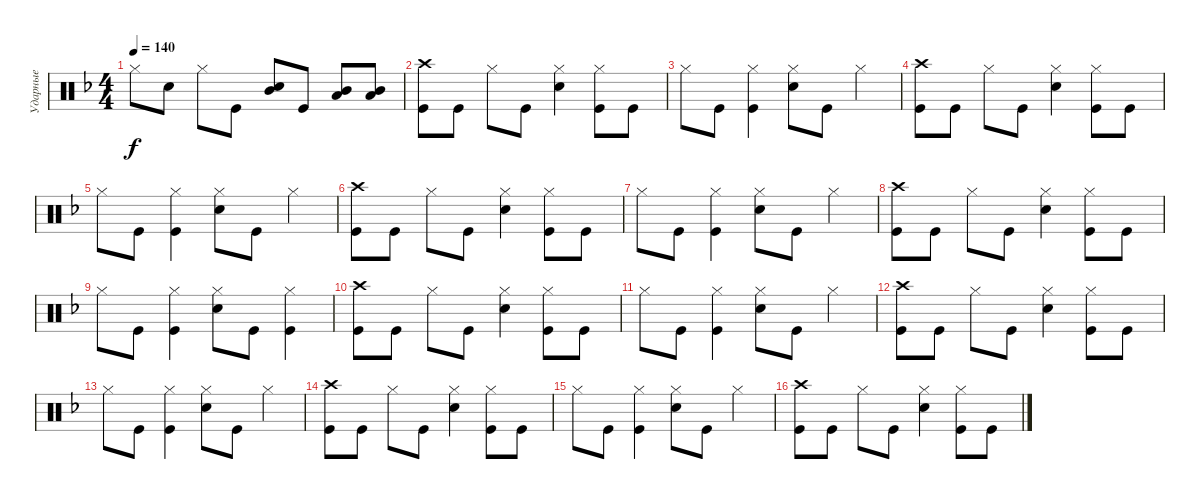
\track ("Ударные" "Ударные") {instrument percussion}
\staff {score}
\articulation defaults
\ts (4 4)
\tempo 140
\clef neutral
\ks dminor "Hi-Hat (closed)".8{dy f} "Snare (hit) 2".8 "Hi-Hat (closed)".8 "Kick (hit)".8
("Snare (hit) 2" "Mid Tom (hit)").8{bd 60} "Kick (hit)".8 ("Mid Tom (hit)" "Low Tom (hit)").8{bd 60} ("Mid Tom (hit)" "Low Tom (hit)").8{bd 60} |
("Kick (hit)" "Crash high (hit)").8 "Kick (hit)".8 "Hi-Hat (closed)".8 "Kick (hit)".8 ("Snare (hit) 2" "Hi-Hat (closed)").4 ("Hi-Hat (closed)" "Kick (hit)").8 "Kick (hit)".8 |
"Hi-Hat (closed)".8 "Kick (hit)".8 ("Kick (hit)" "Hi-Hat (closed)").4 ("Snare (hit) 2" "Hi-Hat (closed)").8 "Kick (hit)".8 "Hi-Hat (closed)".4 |
("Kick (hit)" "Crash high (hit)").8 "Kick (hit)".8 "Hi-Hat (closed)".8 "Kick (hit)".8 ("Snare (hit) 2" "Hi-Hat (closed)").4 ("Hi-Hat (closed)" "Kick (hit)").8 "Kick (hit)".8 |
"Hi-Hat (closed)".8 "Kick (hit)".8 ("Kick (hit)" "Hi-Hat (closed)").4 ("Snare (hit) 2" "Hi-Hat (closed)").8 "Kick (hit)".8 "Hi-Hat (closed)".4 |
("Kick (hit)" "Crash high (hit)").8 "Kick (hit)".8 "Hi-Hat (closed)".8 "Kick (hit)".8 ("Snare (hit) 2" "Hi-Hat (closed)").4 ("Hi-Hat (closed)" "Kick (hit)").8 "Kick (hit)".8 |
"Hi-Hat (closed)".8 "Kick (hit)".8 ("Kick (hit)" "Hi-Hat (closed)").4 ("Snare (hit) 2" "Hi-Hat (closed)").8 "Kick (hit)".8 "Hi-Hat (closed)".4 |
("Kick (hit)" "Crash high (hit)").8 "Kick (hit)".8 "Hi-Hat (closed)".8 "Kick (hit)".8 ("Snare (hit) 2" "Hi-Hat (closed)").4 ("Hi-Hat (closed)" "Kick (hit)").8 "Kick (hit)".8 |
"Hi-Hat (closed)".8 "Kick (hit)".8 ("Kick (hit)" "Hi-Hat (closed)").4 ("Snare (hit) 2" "Hi-Hat (closed)").8 "Kick (hit)".8 ("Hi-Hat (closed)" "Kick (hit)").4 |
("Kick (hit)" "Crash high (hit)").8 "Kick (hit)".8 "Hi-Hat (closed)".8 "Kick (hit)".8 ("Snare (hit) 2" "Hi-Hat (closed)").4 ("Hi-Hat (closed)" "Kick (hit)").8 "Kick (hit)".8 |
"Hi-Hat (closed)".8 "Kick (hit)".8 ("Kick (hit)" "Hi-Hat (closed)").4 ("Snare (hit) 2" "Hi-Hat (closed)").8 "Kick (hit)".8 "Hi-Hat (closed)".4 |
("Kick (hit)" "Crash high (hit)").8 "Kick (hit)".8 "Hi-Hat (closed)".8 "Kick (hit)".8 ("Snare (hit) 2" "Hi-Hat (closed)").4 ("Hi-Hat (closed)" "Kick (hit)").8 "Kick (hit)".8 |
"Hi-Hat (closed)".8 "Kick (hit)".8 ("Kick (hit)" "Hi-Hat (closed)").4 ("Snare (hit) 2" "Hi-Hat (closed)").8 "Kick (hit)".8 "Hi-Hat (closed)".4 |
("Kick (hit)" "Crash high (hit)").8 "Kick (hit)".8 "Hi-Hat (closed)".8 "Kick (hit)".8 ("Snare (hit) 2" "Hi-Hat (closed)").4 ("Hi-Hat (closed)" "Kick (hit)").8 "Kick (hit)".8 |
"Hi-Hat (closed)".8 "Kick (hit)".8 ("Kick (hit)" "Hi-Hat (closed)").4 ("Snare (hit) 2" "Hi-Hat (closed)").8 "Kick (hit)".8 "Hi-Hat (closed)".4 |
("Kick (hit)" "Crash high (hit)").8 "Kick (hit)".8 "Hi-Hat (closed)".8 "Kick (hit)".8 ("Snare (hit) 2" "Hi-Hat (closed)").4 ("Hi-Hat (closed)" "Kick (hit)").8 "Kick (hit)".8
